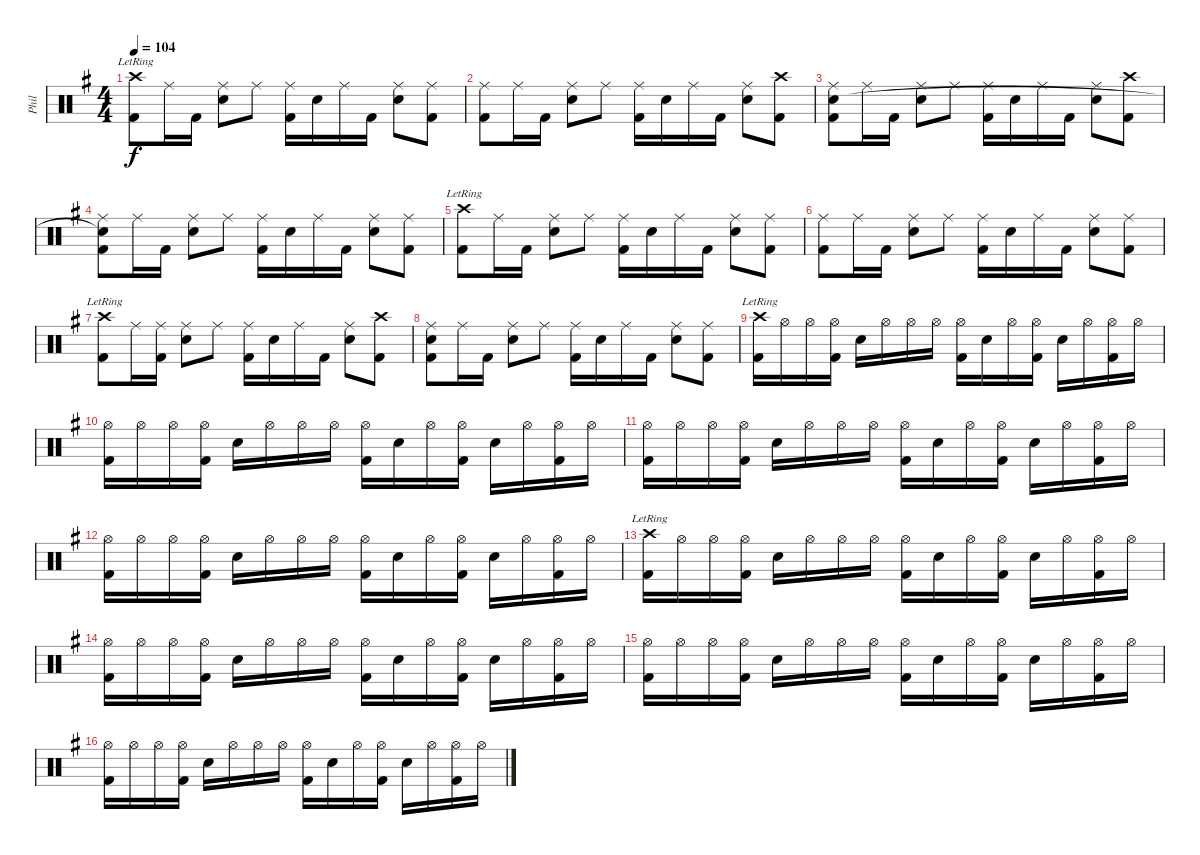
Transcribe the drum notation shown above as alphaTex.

\track ("Phil" "Phil") {instrument percussion}
\staff {score}
\articulation defaults
\ts (4 4)
\tempo 104
\clef neutral
\ks g
("Kick (hit) 2" "Crash high (hit)"{lr}).8{dy f} "Ride (middle)".16 "Kick (hit) 2".16 ("Snare (hit) 2" "Ride (middle)").8 "Ride (middle)".8 ("Kick (hit) 2" "Ride (middle)").16 "Snare (hit) 2".16 "Ride (middle)".16 "Kick (hit) 2".16 ("Snare (hit) 2" "Ride (middle)").8 ("Kick (hit) 2" "Ride (middle)").8 |
("Kick (hit) 2" "Ride (middle)").8 "Ride (middle)".16 "Kick (hit) 2".16 ("Snare (hit) 2" "Ride (middle)").8 "Ride (middle)".8 ("Kick (hit) 2" "Ride (middle)").16 "Snare (hit) 2".16 "Ride (middle)".16 "Kick (hit) 2".16 ("Snare (hit) 2" "Ride (middle)").8 ("Kick (hit) 2" "Crash high (hit)").8 |
("Kick (hit) 2" "Ride (middle)" "Snare (hit)").8 "Ride (middle)".16 "Kick (hit) 2".16 ("Snare (hit) 2" "Ride (middle)").8 "Ride (middle)".8 ("Kick (hit) 2" "Ride (middle)").16 "Snare (hit) 2".16 "Ride (middle)".16 "Kick (hit) 2".16 ("Snare (hit) 2" "Ride (middle)").8 ("Kick (hit) 2" "Crash high (hit)").8 |
("Kick (hit) 2" "Ride (middle)" "Snare (hit)"{t}).8 "Ride (middle)".16 "Kick (hit) 2".16 ("Snare (hit) 2" "Ride (middle)").8 "Ride (middle)".8 ("Kick (hit) 2" "Ride (middle)").16 "Snare (hit) 2".16 "Ride (middle)".16 "Kick (hit) 2".16 ("Snare (hit) 2" "Ride (middle)").8 ("Kick (hit) 2" "Ride (middle)").8 |
("Kick (hit) 2" "Crash high (hit)"{lr}).8 "Ride (middle)".16 "Kick (hit) 2".16 ("Snare (hit) 2" "Ride (middle)").8 "Ride (middle)".8 ("Kick (hit) 2" "Ride (middle)").16 "Snare (hit) 2".16 "Ride (middle)".16 "Kick (hit) 2".16 ("Snare (hit) 2" "Ride (middle)").8 ("Kick (hit) 2" "Ride (middle)").8 |
("Kick (hit) 2" "Ride (middle)").8 "Ride (middle)".16 "Kick (hit) 2".16 ("Snare (hit) 2" "Ride (middle)").8 "Ride (middle)".8 ("Kick (hit) 2" "Ride (middle)").16 "Snare (hit) 2".16 "Ride (middle)".16 "Kick (hit) 2".16 ("Snare (hit) 2" "Ride (middle)").8 ("Kick (hit) 2" "Ride (middle)").8 |
("Kick (hit) 2" "Crash high (hit)"{lr}).8 "Ride (middle)".16 ("Kick (hit) 2" "Ride (middle)").16 ("Snare (hit) 2" "Ride (middle)").8 "Ride (middle)".8 ("Kick (hit) 2" "Ride (middle)").16 "Snare (hit) 2".16 "Ride (middle)".16 "Kick (hit) 2".16 ("Snare (hit) 2" "Ride (middle)").8 ("Kick (hit) 2" "Crash high (hit)").8 |
("Kick (hit) 2" "Ride (middle)" "Snare (hit)").8 "Ride (middle)".16 "Kick (hit) 2".16 ("Snare (hit) 2" "Ride (middle)").8 "Ride (middle)".8 ("Kick (hit) 2" "Ride (middle)").16 "Snare (hit) 2".16 "Ride (middle)".16 "Kick (hit) 2".16 ("Snare (hit) 2" "Ride (middle)").8 ("Kick (hit) 2" "Ride (middle)").8 |
("Kick (hit) 2" "Crash high (hit)"{lr}).16 "Hi-Hat (open)".16 "Hi-Hat (open)".16 ("Kick (hit) 2" "Hi-Hat (open)").16 "Snare (hit) 2".16 "Hi-Hat (open)".16 "Hi-Hat (open)".16 "Hi-Hat (open)".16 ("Kick (hit) 2" "Hi-Hat (open)").16 "Snare (hit) 2".16 "Hi-Hat (open)".16 ("Kick (hit) 2" "Hi-Hat (open)").16 "Snare (hit) 2".16 "Hi-Hat (open)".16 ("Kick (hit) 2" "Hi-Hat (open)").16 "Hi-Hat (open)".16 |
("Kick (hit) 2" "Hi-Hat (open)").16 "Hi-Hat (open)".16 "Hi-Hat (open)".16 ("Kick (hit) 2" "Hi-Hat (open)").16 "Snare (hit) 2".16 "Hi-Hat (open)".16 "Hi-Hat (open)".16 "Hi-Hat (open)".16 ("Kick (hit) 2" "Hi-Hat (open)").16 "Snare (hit) 2".16 "Hi-Hat (open)".16 ("Kick (hit) 2" "Hi-Hat (open)").16 "Snare (hit) 2".16 "Hi-Hat (open)".16 ("Kick (hit) 2" "Hi-Hat (open)").16 "Hi-Hat (open)".16 |
("Kick (hit) 2" "Hi-Hat (open)").16 "Hi-Hat (open)".16 "Hi-Hat (open)".16 ("Kick (hit) 2" "Hi-Hat (open)").16 "Snare (hit) 2".16 "Hi-Hat (open)".16 "Hi-Hat (open)".16 "Hi-Hat (open)".16 ("Kick (hit) 2" "Hi-Hat (open)").16 "Snare (hit) 2".16 "Hi-Hat (open)".16 ("Kick (hit) 2" "Hi-Hat (open)").16 "Snare (hit) 2".16 "Hi-Hat (open)".16 ("Kick (hit) 2" "Hi-Hat (open)").16 "Hi-Hat (open)".16 |
("Kick (hit) 2" "Hi-Hat (open)").16 "Hi-Hat (open)".16 "Hi-Hat (open)".16 ("Kick (hit) 2" "Hi-Hat (open)").16 "Snare (hit) 2".16 "Hi-Hat (open)".16 "Hi-Hat (open)".16 "Hi-Hat (open)".16 ("Kick (hit) 2" "Hi-Hat (open)").16 "Snare (hit) 2".16 "Hi-Hat (open)".16 ("Kick (hit) 2" "Hi-Hat (open)").16 "Snare (hit) 2".16 "Hi-Hat (open)".16 ("Kick (hit) 2" "Hi-Hat (open)").16 "Hi-Hat (open)".16 |
("Kick (hit) 2" "Crash high (hit)"{lr}).16 "Hi-Hat (open)".16 "Hi-Hat (open)".16 ("Kick (hit) 2" "Hi-Hat (open)").16 "Snare (hit) 2".16 "Hi-Hat (open)".16 "Hi-Hat (open)".16 "Hi-Hat (open)".16 ("Kick (hit) 2" "Hi-Hat (open)").16 "Snare (hit) 2".16 "Hi-Hat (open)".16 ("Kick (hit) 2" "Hi-Hat (open)").16 "Snare (hit) 2".16 "Hi-Hat (open)".16 ("Kick (hit) 2" "Hi-Hat (open)").16 "Hi-Hat (open)".16 |
("Kick (hit) 2" "Hi-Hat (open)").16 "Hi-Hat (open)".16 "Hi-Hat (open)".16 ("Kick (hit) 2" "Hi-Hat (open)").16 "Snare (hit) 2".16 "Hi-Hat (open)".16 "Hi-Hat (open)".16 "Hi-Hat (open)".16 ("Kick (hit) 2" "Hi-Hat (open)").16 "Snare (hit) 2".16 "Hi-Hat (open)".16 ("Kick (hit) 2" "Hi-Hat (open)").16 "Snare (hit) 2".16 "Hi-Hat (open)".16 ("Kick (hit) 2" "Hi-Hat (open)").16 "Hi-Hat (open)".16 |
("Kick (hit) 2" "Hi-Hat (open)").16 "Hi-Hat (open)".16 "Hi-Hat (open)".16 ("Kick (hit) 2" "Hi-Hat (open)").16 "Snare (hit) 2".16 "Hi-Hat (open)".16 "Hi-Hat (open)".16 "Hi-Hat (open)".16 ("Kick (hit) 2" "Hi-Hat (open)").16 "Snare (hit) 2".16 "Hi-Hat (open)".16 ("Kick (hit) 2" "Hi-Hat (open)").16 "Snare (hit) 2".16 "Hi-Hat (open)".16 ("Kick (hit) 2" "Hi-Hat (open)").16 "Hi-Hat (open)".16 |
("Kick (hit) 2" "Hi-Hat (open)").16 "Hi-Hat (open)".16 "Hi-Hat (open)".16 ("Kick (hit) 2" "Hi-Hat (open)").16 "Snare (hit) 2".16 "Hi-Hat (open)".16 "Hi-Hat (open)".16 "Hi-Hat (open)".16 ("Kick (hit) 2" "Hi-Hat (open)").16 "Snare (hit) 2".16 "Hi-Hat (open)".16 ("Kick (hit) 2" "Hi-Hat (open)").16 "Snare (hit) 2".16 "Hi-Hat (open)".16 ("Kick (hit) 2" "Hi-Hat (open)").16 "Hi-Hat (open)".16
